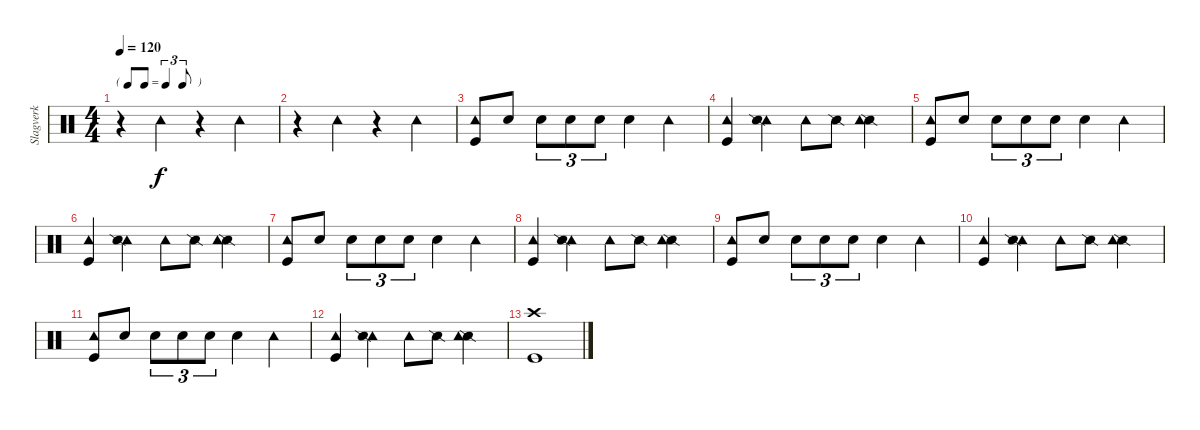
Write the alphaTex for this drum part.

\track ("Slagverk" "Slagverk") {instrument percussion}
\staff {score}
\articulation defaults
\ts (4 4)
\tf triplet8th
\tempo 120
\clef neutral
\ks c
r.4{dy f} "Tambourine (hit)".4 r.4 "Tambourine (hit)".4 |
r.4 "Tambourine (hit)".4 r.4 "Tambourine (hit)".4 |
("Kick (hit)" "Tambourine (hit)").8 "Electric Snare (hit)".8 "Electric Snare (hit)".8{tu (3 2)} "Electric Snare (hit)".8{tu (3 2)} "Electric Snare (hit)".8{tu (3 2)} "Electric Snare (hit)".4 "Tambourine (hit)".4 |
("Tambourine (hit)" "Kick (hit)").4 ("Tambourine (hit)" "Snare (side stick) 2").4 "Tambourine (hit)".8 "Snare (side stick) 2".8 ("Snare (side stick) 2" "Tambourine (hit)").4 |
("Kick (hit)" "Tambourine (hit)").8 "Electric Snare (hit)".8 "Electric Snare (hit)".8{tu (3 2)} "Electric Snare (hit)".8{tu (3 2)} "Electric Snare (hit)".8{tu (3 2)} "Electric Snare (hit)".4 "Tambourine (hit)".4 |
("Tambourine (hit)" "Kick (hit)").4 ("Tambourine (hit)" "Snare (side stick) 2").4 "Tambourine (hit)".8 "Snare (side stick) 2".8 ("Snare (side stick) 2" "Tambourine (hit)").4 |
("Kick (hit)" "Tambourine (hit)").8 "Electric Snare (hit)".8 "Electric Snare (hit)".8{tu (3 2)} "Electric Snare (hit)".8{tu (3 2)} "Electric Snare (hit)".8{tu (3 2)} "Electric Snare (hit)".4 "Tambourine (hit)".4 |
("Tambourine (hit)" "Kick (hit)").4 ("Tambourine (hit)" "Snare (side stick) 2").4 "Tambourine (hit)".8 "Snare (side stick) 2".8 ("Snare (side stick) 2" "Tambourine (hit)").4 |
("Kick (hit)" "Tambourine (hit)").8 "Electric Snare (hit)".8 "Electric Snare (hit)".8{tu (3 2)} "Electric Snare (hit)".8{tu (3 2)} "Electric Snare (hit)".8{tu (3 2)} "Electric Snare (hit)".4 "Tambourine (hit)".4 |
("Tambourine (hit)" "Kick (hit)").4 ("Tambourine (hit)" "Snare (side stick) 2").4 "Tambourine (hit)".8 "Snare (side stick) 2".8 ("Snare (side stick) 2" "Tambourine (hit)").4 |
("Kick (hit)" "Tambourine (hit)").8 "Electric Snare (hit)".8 "Electric Snare (hit)".8{tu (3 2)} "Electric Snare (hit)".8{tu (3 2)} "Electric Snare (hit)".8{tu (3 2)} "Electric Snare (hit)".4 "Tambourine (hit)".4 |
("Tambourine (hit)" "Kick (hit)").4 ("Tambourine (hit)" "Snare (side stick) 2").4 "Tambourine (hit)".8 "Snare (side stick) 2".8 ("Snare (side stick) 2" "Tambourine (hit)").4 |
("Crash high (hit)" "Kick (hit)").1
